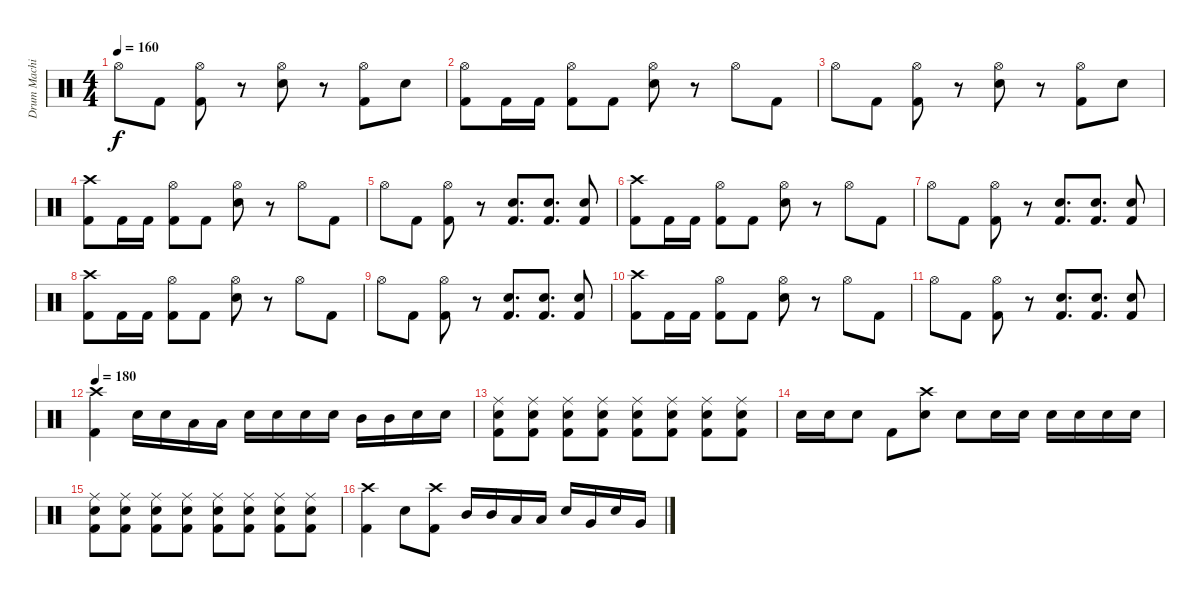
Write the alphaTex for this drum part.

\track ("Drum Machine" "Drum Machi") {instrument percussion}
\staff {score}
\articulation defaults
\ts (4 4)
\tempo 160
\clef neutral
\ks c "Hi-Hat (open)".8{dy f} "Kick (hit) 2".8
("Hi-Hat (open)" "Kick (hit) 2").8 r.8 ("Hi-Hat (open)" "Snare (hit) 2").8 r.8 ("Hi-Hat (open)" "Kick (hit) 2").8 "Snare (hit) 2".8 |
("Hi-Hat (open)" "Kick (hit) 2").8 "Kick (hit) 2".16 "Kick (hit) 2".16 ("Hi-Hat (open)" "Kick (hit) 2").8 "Kick (hit) 2".8 ("Hi-Hat (open)" "Snare (hit) 2").8 r.8 "Hi-Hat (open)".8 "Kick (hit) 2".8 |
"Hi-Hat (open)".8 "Kick (hit) 2".8 ("Hi-Hat (open)" "Kick (hit) 2").8 r.8 ("Hi-Hat (open)" "Snare (hit) 2").8 r.8 ("Hi-Hat (open)" "Kick (hit) 2").8 "Snare (hit) 2".8 |
("Crash high (hit)" "Kick (hit) 2").8 "Kick (hit) 2".16 "Kick (hit) 2".16 ("Hi-Hat (open)" "Kick (hit) 2").8 "Kick (hit) 2".8 ("Hi-Hat (open)" "Snare (hit) 2").8 r.8 "Hi-Hat (open)".8 "Kick (hit) 2".8 |
"Hi-Hat (open)".8 "Kick (hit) 2".8 ("Hi-Hat (open)" "Kick (hit) 2").8 r.8 ("Snare (hit) 2" "Kick (hit) 2").8{d} ("Snare (hit) 2" "Kick (hit) 2").8{d} ("Snare (hit) 2" "Kick (hit) 2").8 |
("Crash high (hit)" "Kick (hit) 2").8 "Kick (hit) 2".16 "Kick (hit) 2".16 ("Hi-Hat (open)" "Kick (hit) 2").8 "Kick (hit) 2".8 ("Hi-Hat (open)" "Snare (hit) 2").8 r.8 "Hi-Hat (open)".8 "Kick (hit) 2".8 |
"Hi-Hat (open)".8 "Kick (hit) 2".8 ("Hi-Hat (open)" "Kick (hit) 2").8 r.8 ("Snare (hit) 2" "Kick (hit) 2").8{d} ("Snare (hit) 2" "Kick (hit) 2").8{d} ("Snare (hit) 2" "Kick (hit) 2").8 |
("Crash high (hit)" "Kick (hit) 2").8 "Kick (hit) 2".16 "Kick (hit) 2".16 ("Hi-Hat (open)" "Kick (hit) 2").8 "Kick (hit) 2".8 ("Hi-Hat (open)" "Snare (hit) 2").8 r.8 "Hi-Hat (open)".8 "Kick (hit) 2".8 |
"Hi-Hat (open)".8 "Kick (hit) 2".8 ("Hi-Hat (open)" "Kick (hit) 2").8 r.8 ("Snare (hit) 2" "Kick (hit) 2").8{d} ("Snare (hit) 2" "Kick (hit) 2").8{d} ("Snare (hit) 2" "Kick (hit) 2").8 |
("Crash high (hit)" "Kick (hit) 2").8 "Kick (hit) 2".16 "Kick (hit) 2".16 ("Hi-Hat (open)" "Kick (hit) 2").8 "Kick (hit) 2".8 ("Hi-Hat (open)" "Snare (hit) 2").8 r.8 "Hi-Hat (open)".8 "Kick (hit) 2".8 |
"Hi-Hat (open)".8 "Kick (hit) 2".8 ("Hi-Hat (open)" "Kick (hit) 2").8 r.8 ("Snare (hit) 2" "Kick (hit) 2").8{d} ("Snare (hit) 2" "Kick (hit) 2").8{d} ("Snare (hit) 2" "Kick (hit) 2").8 |
\tempo 180
("Crash high (hit)" "Kick (hit) 2").4 "Snare (hit) 2".16 "Snare (hit) 2".16 "Low Tom (hit)".16 "Low Tom (hit)".16 "Snare (hit) 2".16 "Snare (hit) 2".16 "Snare (hit) 2".16 "Snare (hit) 2".16 "Mid Tom (hit)".16 "Mid Tom (hit)".16 "Snare (hit) 2".16 "Snare (hit) 2".16 |
("Ride (middle)" "Snare (hit) 2" "Kick (hit) 2").8 ("Ride (middle)" "Snare (hit) 2" "Kick (hit) 2").8 ("Ride (middle)" "Snare (hit) 2" "Kick (hit) 2").8 ("Ride (middle)" "Snare (hit) 2" "Kick (hit) 2").8 ("Ride (middle)" "Snare (hit) 2" "Kick (hit) 2").8 ("Ride (middle)" "Snare (hit) 2" "Kick (hit) 2").8 ("Ride (middle)" "Snare (hit) 2" "Kick (hit) 2").8 ("Ride (middle)" "Snare (hit) 2" "Kick (hit) 2").8 |
"Snare (hit) 2".16 "Snare (hit) 2".16 "Snare (hit) 2".8 "Kick (hit) 2".8 ("Crash high (hit)" "Snare (hit) 2").8 "Snare (hit) 2".8 "Snare (hit) 2".16 "Snare (hit) 2".16 "Snare (hit) 2".16 "Snare (hit) 2".16 "Snare (hit) 2".16 "Snare (hit) 2".16 |
("Ride (middle)" "Snare (hit) 2" "Kick (hit) 2").8 ("Ride (middle)" "Snare (hit) 2" "Kick (hit) 2").8 ("Ride (middle)" "Snare (hit) 2" "Kick (hit) 2").8 ("Ride (middle)" "Snare (hit) 2" "Kick (hit) 2").8 ("Ride (middle)" "Snare (hit) 2" "Kick (hit) 2").8 ("Ride (middle)" "Snare (hit) 2" "Kick (hit) 2").8 ("Ride (middle)" "Snare (hit) 2" "Kick (hit) 2").8 ("Ride (middle)" "Snare (hit) 2" "Kick (hit) 2").8 |
("Crash high (hit)" "Kick (hit) 2").4 "Snare (hit) 2".8 ("Crash high (hit)" "Kick (hit) 2").8 "Mid Tom (hit)".16 "Mid Tom (hit)".16 "Low Tom (hit)".16 "Low Tom (hit)".16 "Snare (hit) 2".16 "Very Low Tom (hit)".16 "Snare (hit) 2".16 "Very Low Tom (hit)".16
